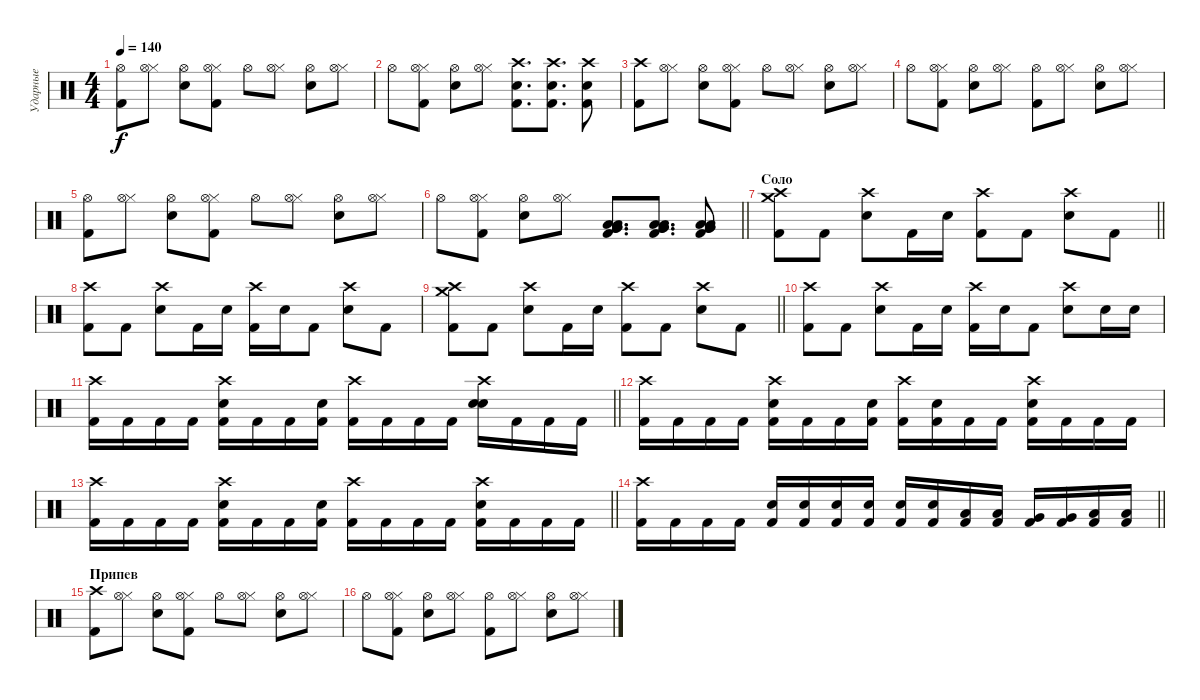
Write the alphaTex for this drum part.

\track ("Ударные" "Ударные") {instrument percussion}
\staff {score}
\articulation defaults
\ts (4 4)
\tempo 140
\clef neutral
\ks c
("Hi-Hat (open)" "Kick (hit) 2").8{dy f} ("Hi-Hat (closed)" "Hi-Hat (open)").8 ("Hi-Hat (open)" "Snare (hit) 2").8 ("Hi-Hat (closed)" "Hi-Hat (open)" "Kick (hit) 2").8 "Hi-Hat (open)".8 ("Hi-Hat (closed)" "Hi-Hat (open)").8 ("Hi-Hat (open)" "Snare (hit) 2").8 ("Hi-Hat (closed)" "Hi-Hat (open)").8 |
"Hi-Hat (open)".8 ("Hi-Hat (closed)" "Hi-Hat (open)" "Kick (hit) 2").8 ("Hi-Hat (open)" "Snare (hit) 2").8 ("Hi-Hat (closed)" "Hi-Hat (open)").8 ("Crash high (hit)" "Snare (hit) 2" "Kick (hit) 2").8{d} ("Crash high (hit)" "Snare (hit) 2" "Kick (hit) 2").8{d} ("Crash high (hit)" "Snare (hit) 2" "Kick (hit) 2").8 |
("Crash high (hit)" "Kick (hit) 2").8 ("Hi-Hat (closed)" "Hi-Hat (open)").8 ("Hi-Hat (open)" "Snare (hit) 2").8 ("Hi-Hat (closed)" "Hi-Hat (open)" "Kick (hit) 2").8 "Hi-Hat (open)".8 ("Hi-Hat (closed)" "Hi-Hat (open)").8 ("Hi-Hat (open)" "Snare (hit) 2").8 ("Hi-Hat (closed)" "Hi-Hat (open)").8 |
"Hi-Hat (open)".8 ("Hi-Hat (closed)" "Hi-Hat (open)" "Kick (hit) 2").8 ("Hi-Hat (open)" "Snare (hit) 2").8 ("Hi-Hat (closed)" "Hi-Hat (open)").8 ("Hi-Hat (open)" "Kick (hit) 2").8 ("Hi-Hat (closed)" "Hi-Hat (open)").8 ("Hi-Hat (open)" "Snare (hit) 2").8 ("Hi-Hat (closed)" "Hi-Hat (open)").8 |
("Hi-Hat (open)" "Kick (hit) 2").8 ("Hi-Hat (closed)" "Hi-Hat (open)").8 ("Hi-Hat (open)" "Snare (hit) 2").8 ("Hi-Hat (closed)" "Hi-Hat (open)" "Kick (hit) 2").8 "Hi-Hat (open)".8 ("Hi-Hat (closed)" "Hi-Hat (open)").8 ("Hi-Hat (open)" "Snare (hit) 2").8 ("Hi-Hat (closed)" "Hi-Hat (open)").8 |
\barLineRight lightlight "Hi-Hat (open)".8
("Hi-Hat (closed)" "Hi-Hat (open)" "Kick (hit) 2").8 ("Hi-Hat (open)" "Snare (hit) 2").8 ("Hi-Hat (closed)" "Hi-Hat (open)").8 ("Low Tom (hit)" "Low Tom (hit)" "Very Low Tom (hit)" "Very Low Tom (hit)" "Kick (hit) 2").8{d} ("Low Tom (hit)" "Low Tom (hit)" "Very Low Tom (hit)" "Very Low Tom (hit)" "Kick (hit) 2").8{d} ("Low Tom (hit)" "Low Tom (hit)" "Very Low Tom (hit)" "Very Low Tom (hit)" "Kick (hit) 2").8 |
\section ("" "Соло")
\barLineRight lightlight
("Crash high (hit)" "Crash medium (hit)" "Kick (hit) 2").8 "Kick (hit) 2".8 ("Crash high (hit)" "Snare (hit) 2").8 "Kick (hit) 2".16 "Snare (hit) 2".16 ("Crash high (hit)" "Kick (hit) 2").8 "Kick (hit) 2".8 ("Crash high (hit)" "Snare (hit) 2").8 "Kick (hit) 2".8 |
("Crash high (hit)" "Kick (hit) 2").8 "Kick (hit) 2".8 ("Crash high (hit)" "Snare (hit) 2").8 "Kick (hit) 2".16 "Snare (hit) 2".16 ("Crash high (hit)" "Kick (hit) 2").16 "Snare (hit) 2".16 "Kick (hit) 2".8 ("Crash high (hit)" "Snare (hit) 2").8 "Kick (hit) 2".8 |
\barLineRight lightlight
("Crash high (hit)" "Crash medium (hit)" "Kick (hit) 2").8 "Kick (hit) 2".8 ("Crash high (hit)" "Snare (hit) 2").8 "Kick (hit) 2".16 "Snare (hit) 2".16 ("Crash high (hit)" "Kick (hit) 2").8 "Kick (hit) 2".8 ("Crash high (hit)" "Snare (hit) 2").8 "Kick (hit) 2".8 |
("Crash high (hit)" "Kick (hit) 2").8 "Kick (hit) 2".8 ("Crash high (hit)" "Snare (hit) 2").8 "Kick (hit) 2".16 "Snare (hit) 2".16 ("Crash high (hit)" "Kick (hit) 2").16 "Snare (hit) 2".16 "Kick (hit) 2".8 ("Crash high (hit)" "Snare (hit) 2").8 "Snare (hit) 2".16 "Snare (hit) 2".16 |
\barLineRight lightlight
("Crash high (hit)" "Kick (hit) 2").16 "Kick (hit) 2".16 "Kick (hit) 2".16 "Kick (hit) 2".16 ("Crash high (hit)" "Snare (hit) 2" "Kick (hit) 2").16 "Kick (hit) 2".16 "Kick (hit) 2".16 ("Snare (hit) 2" "Kick (hit) 2").16 ("Crash high (hit)" "Kick (hit) 2").16 "Kick (hit) 2".16 "Kick (hit) 2".16 "Kick (hit) 2".16 ("Crash high (hit)" "Snare (hit) 2" "Snare (hit) 2").16 "Kick (hit) 2".16 "Kick (hit) 2".16 "Kick (hit) 2".16 |
("Crash high (hit)" "Kick (hit) 2").16 "Kick (hit) 2".16 "Kick (hit) 2".16 "Kick (hit) 2".16 ("Crash high (hit)" "Snare (hit) 2" "Kick (hit) 2").16 "Kick (hit) 2".16 "Kick (hit) 2".16 ("Snare (hit) 2" "Kick (hit) 2").16 ("Crash high (hit)" "Kick (hit) 2").16 ("Snare (hit) 2" "Kick (hit) 2").16 "Kick (hit) 2".16 "Kick (hit) 2".16 ("Crash high (hit)" "Snare (hit) 2" "Kick (hit) 2").16 "Kick (hit) 2".16 "Kick (hit) 2".16 "Kick (hit) 2".16 |
\barLineRight lightlight
("Crash high (hit)" "Kick (hit) 2").16 "Kick (hit) 2".16 "Kick (hit) 2".16 "Kick (hit) 2".16 ("Crash high (hit)" "Snare (hit) 2" "Kick (hit) 2").16 "Kick (hit) 2".16 "Kick (hit) 2".16 ("Snare (hit) 2" "Kick (hit) 2").16 ("Crash high (hit)" "Kick (hit) 2").16 "Kick (hit) 2".16 "Kick (hit) 2".16 "Kick (hit) 2".16 ("Crash high (hit)" "Snare (hit) 2" "Kick (hit) 2").16 "Kick (hit) 2".16 "Kick (hit) 2".16 "Kick (hit) 2".16 |
\barLineRight lightlight
("Crash high (hit)" "Kick (hit) 2").16 "Kick (hit) 2".16 "Kick (hit) 2".16 "Kick (hit) 2".16 ("Snare (hit) 2" "Kick (hit) 2").16{volume 10} ("Snare (hit) 2" "Kick (hit) 2").16{volume 11} ("Snare (hit) 2" "Kick (hit) 2").16{volume 13} ("Snare (hit) 2" "Kick (hit) 2").16 ("Snare (hit) 2" "Kick (hit) 2").16 ("Snare (hit) 2" "Kick (hit) 2").16 ("Low Floor Tom (hit)" "Kick (hit) 2").16 ("Low Floor Tom (hit)" "Kick (hit) 2").16 ("Very Low Tom (hit)" "Kick (hit) 2").16 ("Very Low Tom (hit)" "Kick (hit) 2").16 ("Low Tom (hit)" "Kick (hit) 2").16 ("Low Tom (hit)" "Kick (hit) 2").16 |
\section ("" "Припев")
("Crash high (hit)" "Kick (hit) 2").8 ("Hi-Hat (closed)" "Hi-Hat (open)").8 ("Hi-Hat (open)" "Snare (hit) 2").8 ("Hi-Hat (closed)" "Hi-Hat (open)" "Kick (hit) 2").8 "Hi-Hat (open)".8 ("Hi-Hat (closed)" "Hi-Hat (open)").8 ("Hi-Hat (open)" "Snare (hit) 2").8 ("Hi-Hat (closed)" "Hi-Hat (open)").8 |
"Hi-Hat (open)".8 ("Hi-Hat (closed)" "Hi-Hat (open)" "Kick (hit) 2").8 ("Hi-Hat (open)" "Snare (hit) 2").8 ("Hi-Hat (closed)" "Hi-Hat (open)").8 ("Hi-Hat (open)" "Kick (hit) 2").8 ("Hi-Hat (closed)" "Hi-Hat (open)").8 ("Hi-Hat (open)" "Snare (hit) 2").8 ("Hi-Hat (closed)" "Hi-Hat (open)").8
